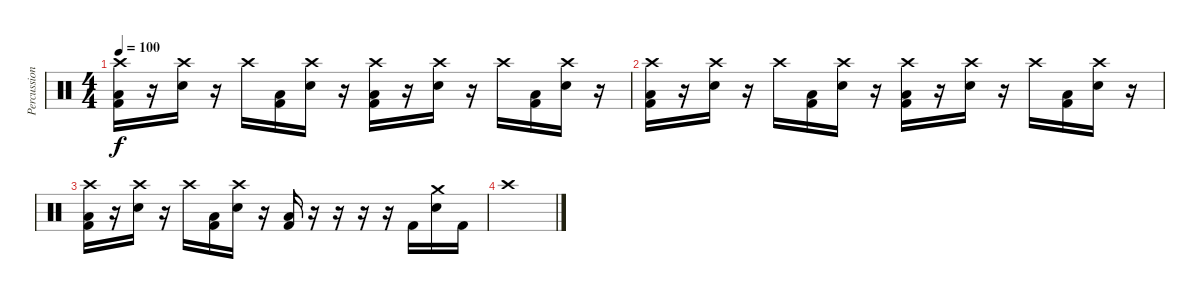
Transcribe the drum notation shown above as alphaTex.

\track ("Percussions" "Percussion") {instrument percussion}
\staff {score}
\articulation defaults
\ts (4 4)
\tempo 100
\clef neutral
\ks c
("Crash high (hit)" "Kick (hit) 2" "Low Floor Tom (hit)").16{dy f} r.16 ("Crash high (hit)" "Electric Snare (hit)").16 r.16 "Crash high (hit)".16 ("Kick (hit) 2" "Low Floor Tom (hit)").16 ("Crash high (hit)" "Electric Snare (hit)").16 r.16 ("Crash high (hit)" "Kick (hit) 2" "Low Floor Tom (hit)").16 r.16 ("Crash high (hit)" "Electric Snare (hit)").16 r.16 "Crash high (hit)".16 ("Kick (hit) 2" "Low Floor Tom (hit)").16 ("Crash high (hit)" "Electric Snare (hit)").16 r.16 |
("Crash high (hit)" "Kick (hit) 2" "Low Floor Tom (hit)").16 r.16 ("Crash high (hit)" "Electric Snare (hit)").16 r.16 "Crash high (hit)".16 ("Kick (hit) 2" "Low Floor Tom (hit)").16 ("Crash high (hit)" "Electric Snare (hit)").16 r.16 ("Crash high (hit)" "Kick (hit) 2" "Low Floor Tom (hit)").16 r.16 ("Crash high (hit)" "Electric Snare (hit)").16 r.16 "Crash high (hit)".16 ("Kick (hit) 2" "Low Floor Tom (hit)").16 ("Crash high (hit)" "Electric Snare (hit)").16 r.16 |
("Crash high (hit)" "Kick (hit) 2" "Low Floor Tom (hit)").16 r.16 ("Crash high (hit)" "Electric Snare (hit)").16 r.16 "Crash high (hit)".16 ("Kick (hit) 2" "Low Floor Tom (hit)").16 ("Crash high (hit)" "Electric Snare (hit)").16 r.16 ("Kick (hit) 2" "Low Floor Tom (hit)").16 r.16 r.16 r.16 r.16 "Kick (hit) 2".16 ("Crash medium (hit)" "Electric Snare (hit)").16 "Kick (hit) 2".16 |
"Crash high (hit)".1
